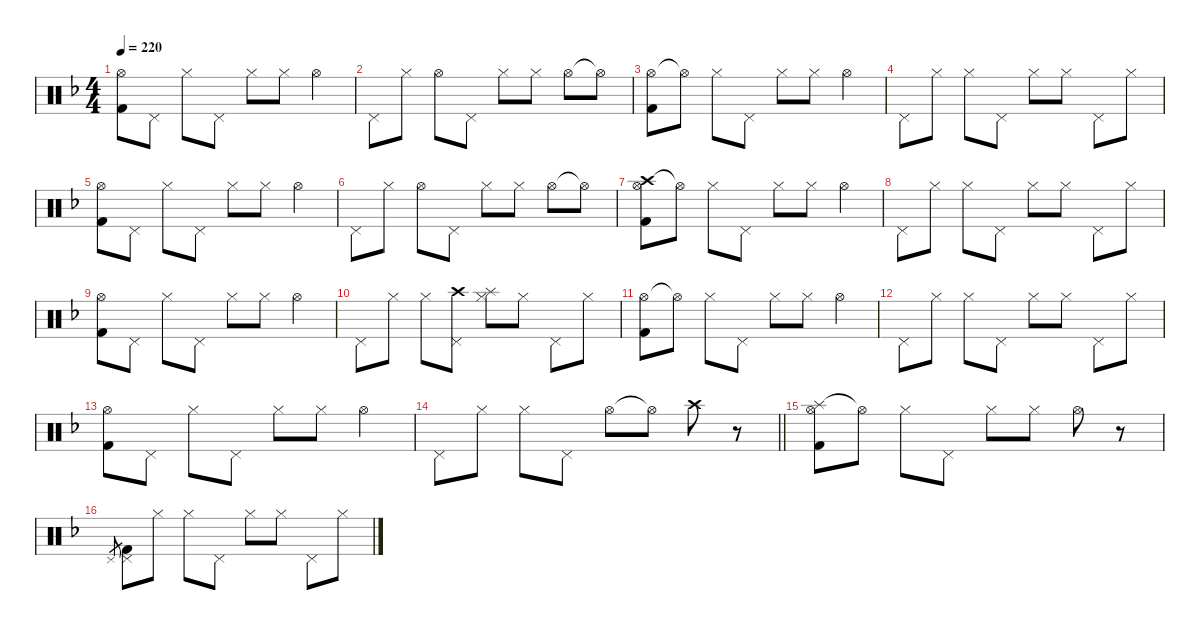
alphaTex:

\hideDynamics
\bracketExtendMode nobrackets
\singleTrackTrackNamePolicy hidden
\multiTrackTrackNamePolicy hidden
\firstSystemTrackNameMode fullname
\firstSystemTrackNameOrientation horizontal
\otherSystemsTrackNameOrientation horizontal
\track ("Drumkit" "Drums") {instrument percussion}
\staff {score}
\articulation defaults
\ts (4 4)
\tempo 220
\clef neutral
\ks dminor
("Hi-Hat (open)"{acc forcenatural} "Kick (hit) 2"{acc forcenatural}).8{dy mf beam Down} "Pedal Hi-Hat (hit)"{acc forcenatural}.8{beam Down} "Hi-Hat (closed)"{acc forcenatural}.8{dy mp beam Down} "Pedal Hi-Hat (hit)"{acc forcenatural}.8{beam Down} "Hi-Hat (closed)"{acc forcenatural}.8{beam Down} "Hi-Hat (closed)"{acc forcenatural}.8{beam Down} "Hi-Hat (open)"{acc forcenatural}.4{dy mf beam Down} |
"Pedal Hi-Hat (hit)"{acc forcenatural}.8{beam Down} "Hi-Hat (closed)"{acc forcenatural}.8{dy mp beam Down} "Hi-Hat (open)"{acc forcenatural}.8{dy mf beam Down} "Pedal Hi-Hat (hit)"{acc forcenatural}.8{dy f beam Down} "Hi-Hat (closed)"{acc forcenatural}.8{dy mp beam Down} "Hi-Hat (closed)"{acc forcenatural}.8{beam Down} "Hi-Hat (open)"{acc forcenatural}.8{dy mf beam Down} "Hi-Hat (open)"{t acc forcenatural}.8{dy f beam Down} |
("Hi-Hat (open)"{acc forcenatural} "Kick (hit) 2"{acc forcenatural}).8{dy mf beam Down} "Hi-Hat (open)"{t acc forcenatural}.8{dy f beam Down} "Hi-Hat (closed)"{acc forcenatural}.8{dy mp beam Down} "Pedal Hi-Hat (hit)"{acc forcenatural}.8{beam Down} "Hi-Hat (closed)"{acc forcenatural}.8{beam Down} "Hi-Hat (closed)"{acc forcenatural}.8{beam Down} "Hi-Hat (open)"{acc forcenatural}.4{dy mf beam Down} |
"Pedal Hi-Hat (hit)"{acc forcenatural}.8{beam Down} "Hi-Hat (closed)"{acc forcenatural}.8{dy mp beam Down} "Hi-Hat (closed)"{acc forcenatural}.8{beam Down} "Pedal Hi-Hat (hit)"{acc forcenatural}.8{dy mf beam Down} "Hi-Hat (closed)"{acc forcenatural}.8{dy mp beam Down} "Hi-Hat (closed)"{acc forcenatural}.8{beam Down} "Pedal Hi-Hat (hit)"{acc forcenatural}.8{dy mf beam Down} "Hi-Hat (closed)"{acc forcenatural}.8{dy mp beam Down} |
("Hi-Hat (open)"{acc forcenatural} "Kick (hit) 2"{acc forcenatural}).8{dy mf beam Down} "Pedal Hi-Hat (hit)"{acc forcenatural}.8{beam Down} "Hi-Hat (closed)"{acc forcenatural}.8{dy mp beam Down} "Pedal Hi-Hat (hit)"{acc forcenatural}.8{beam Down} "Hi-Hat (closed)"{acc forcenatural}.8{beam Down} "Hi-Hat (closed)"{acc forcenatural}.8{beam Down} "Hi-Hat (open)"{acc forcenatural}.4{dy mf beam Down} |
"Pedal Hi-Hat (hit)"{acc forcenatural}.8{beam Down} "Hi-Hat (closed)"{acc forcenatural}.8{dy mp beam Down} "Hi-Hat (open)"{acc forcenatural}.8{dy mf beam Down} "Pedal Hi-Hat (hit)"{acc forcenatural}.8{dy f beam Down} "Hi-Hat (closed)"{acc forcenatural}.8{dy mp beam Down} "Hi-Hat (closed)"{acc forcenatural}.8{beam Down} "Hi-Hat (open)"{acc forcenatural}.8{dy mf beam Down} "Hi-Hat (open)"{t acc forcenatural}.8{dy f beam Down} |
("Crash high (hit)"{acc forcenatural} "Hi-Hat (open)"{acc forcenatural} "Kick (hit) 2"{acc forcenatural}).8{dy mp beam Down} "Hi-Hat (open)"{t acc forcenatural}.8{dy f beam Down} "Hi-Hat (closed)"{acc forcenatural}.8{dy mp beam Down} "Pedal Hi-Hat (hit)"{acc forcenatural}.8{beam Down} "Hi-Hat (closed)"{acc forcenatural}.8{beam Down} "Hi-Hat (closed)"{acc forcenatural}.8{beam Down} "Hi-Hat (open)"{acc forcenatural}.4{dy mf beam Down} |
"Pedal Hi-Hat (hit)"{acc forcenatural}.8{beam Down} "Hi-Hat (closed)"{acc forcenatural}.8{dy mp beam Down} "Hi-Hat (closed)"{acc forcenatural}.8{beam Down} "Pedal Hi-Hat (hit)"{acc forcenatural}.8{dy mf beam Down} "Hi-Hat (closed)"{acc forcenatural}.8{dy mp beam Down} "Hi-Hat (closed)"{acc forcenatural}.8{beam Down} "Pedal Hi-Hat (hit)"{acc forcenatural}.8{dy mf beam Down} "Hi-Hat (closed)"{acc forcenatural}.8{dy mp beam Down} |
("Hi-Hat (open)"{acc forcenatural} "Kick (hit) 2"{acc forcenatural}).8{dy mf beam Down} "Pedal Hi-Hat (hit)"{acc forcenatural}.8{beam Down} "Hi-Hat (closed)"{acc forcenatural}.8{dy mp beam Down} "Pedal Hi-Hat (hit)"{acc forcenatural}.8{beam Down} "Hi-Hat (closed)"{acc forcenatural}.8{beam Down} "Hi-Hat (closed)"{acc forcenatural}.8{beam Down} "Hi-Hat (open)"{acc forcenatural}.4{dy mf beam Down} |
"Pedal Hi-Hat (hit)"{acc forcenatural}.8{beam Down} "Hi-Hat (closed)"{acc forcenatural}.8{dy mp beam Down} "Hi-Hat (closed)"{acc forcenatural}.8{beam Down} ("Crash high (hit)"{acc forcenatural} "Pedal Hi-Hat (hit)"{acc forcenatural}).8{beam Down} ("Splash (hit)"{acc forcenatural} "Hi-Hat (closed)"{acc forcenatural}).8{beam Down} "Hi-Hat (closed)"{acc forcenatural}.8{beam Down} "Pedal Hi-Hat (hit)"{acc forcenatural}.8{dy mf beam Down} "Hi-Hat (closed)"{acc forcenatural}.8{dy mp beam Down} |
("Hi-Hat (open)"{acc forcenatural} "Kick (hit) 2"{acc forcenatural}).8{dy mf beam Down} "Hi-Hat (open)"{t acc forcenatural}.8{dy f beam Down} "Hi-Hat (closed)"{acc forcenatural}.8{dy mp beam Down} "Pedal Hi-Hat (hit)"{acc forcenatural}.8{beam Down} "Hi-Hat (closed)"{acc forcenatural}.8{beam Down} "Hi-Hat (closed)"{acc forcenatural}.8{beam Down} "Hi-Hat (open)"{acc forcenatural}.4{dy mf beam Down} |
"Pedal Hi-Hat (hit)"{acc forcenatural}.8{beam Down} "Hi-Hat (closed)"{acc forcenatural}.8{dy mp beam Down} "Hi-Hat (closed)"{acc forcenatural}.8{beam Down} "Pedal Hi-Hat (hit)"{acc forcenatural}.8{dy mf beam Down} "Hi-Hat (closed)"{acc forcenatural}.8{dy mp beam Down} "Hi-Hat (closed)"{acc forcenatural}.8{beam Down} "Pedal Hi-Hat (hit)"{acc forcenatural}.8{dy mf beam Down} "Hi-Hat (closed)"{acc forcenatural}.8{dy mp beam Down} |
("Hi-Hat (open)"{acc forcenatural} "Kick (hit) 2"{acc forcenatural}).8{dy mf beam Down} "Pedal Hi-Hat (hit)"{acc forcenatural}.8{beam Down} "Hi-Hat (closed)"{acc forcenatural}.8{dy mp beam Down} "Pedal Hi-Hat (hit)"{acc forcenatural}.8{beam Down} "Hi-Hat (closed)"{acc forcenatural}.8{beam Down} "Hi-Hat (closed)"{acc forcenatural}.8{beam Down} "Hi-Hat (open)"{acc forcenatural}.4{dy mf beam Down} |
\barLineRight lightlight "Pedal Hi-Hat (hit)"{acc forcenatural}.8{beam Down} "Hi-Hat (closed)"{acc forcenatural}.8{dy mp beam Down} "Hi-Hat (closed)"{acc forcenatural}.8{beam Down} "Pedal Hi-Hat (hit)"{acc forcenatural}.8{dy mf beam Down} "Hi-Hat (open)"{acc forcenatural}.8{beam Down} "Hi-Hat (open)"{t acc forcenatural}.8{dy f beam Down} "Crash high (hit)"{acc forcenatural}.8{dy mf beam Down}
r.8{beam Down} |
("Splash (hit)"{acc forcenatural} "Hi-Hat (open)"{acc forcenatural} "Kick (hit) 2"{acc forcenatural}).8{dy mp beam Down} "Hi-Hat (open)"{t acc forcenatural}.8{beam Down} "Hi-Hat (closed)"{acc forcenatural}.8{dy p beam Down} "Pedal Hi-Hat (hit)"{acc forcenatural}.8{beam Down} "Hi-Hat (closed)"{acc forcenatural}.8{dy mp beam Down} "Hi-Hat (closed)"{acc forcenatural}.8{beam Down} "Hi-Hat (open)"{acc forcenatural}.8{beam Down} r.8{beam Down} |
"Pedal Hi-Hat (hit)"{acc forcenatural}.8{gr dy p beam Up} ("Pedal Hi-Hat (hit)"{acc forcenatural} "Kick (hit) 2"{acc forcenatural}).8{beam Down} "Hi-Hat (closed)"{acc forcenatural}.8{beam Down} "Hi-Hat (closed)"{acc forcenatural}.8{dy mp beam Down} "Pedal Hi-Hat (hit)"{acc forcenatural}.8{dy mf beam Down} "Hi-Hat (closed)"{acc forcenatural}.8{dy mp beam Down} "Hi-Hat (closed)"{acc forcenatural}.8{beam Down} "Pedal Hi-Hat (hit)"{acc forcenatural}.8{dy p beam Down} "Hi-Hat (closed)"{acc forcenatural}.8{beam Down}
